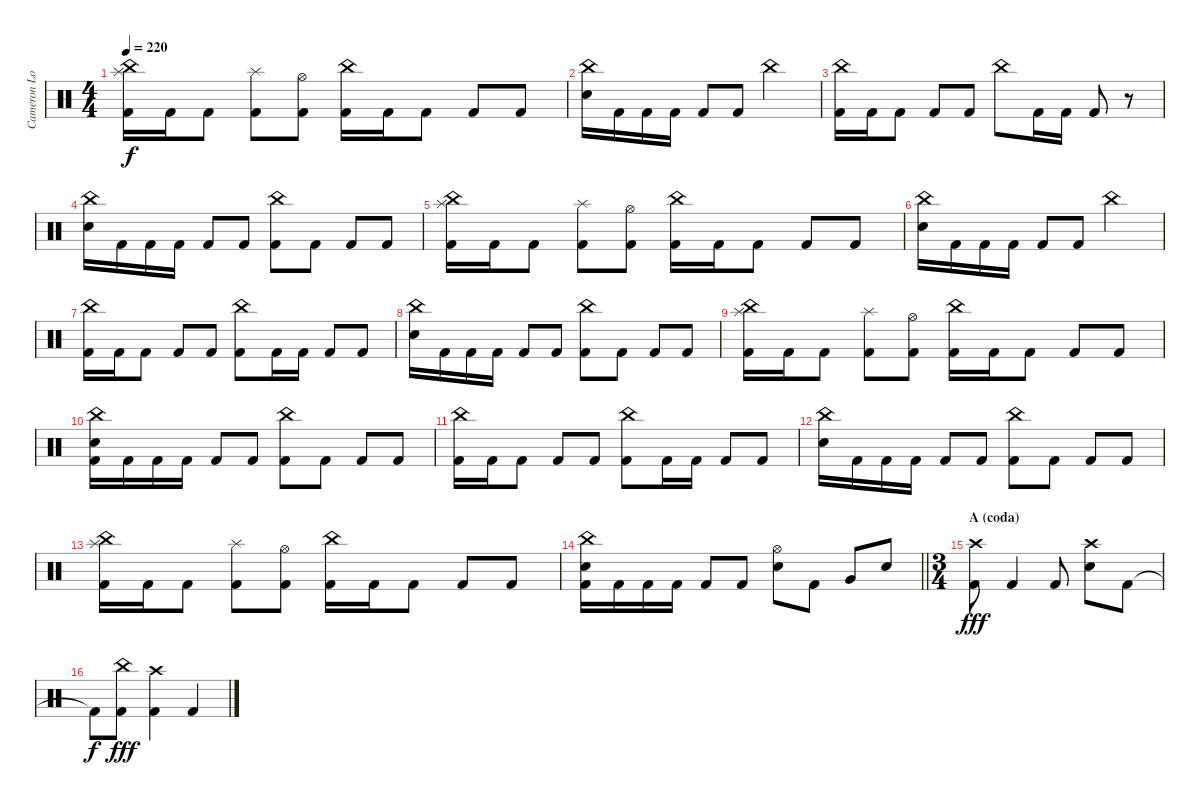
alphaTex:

\track ("Cameron Losch - Drums" "Cameron Lo") {instrument percussion}
\staff {score}
\articulation defaults
\ts (4 4)
\tempo 220
\clef neutral
\ks c
("China (hit)" "Splash (hit)" "Kick (hit) 2").16{dy f} "Kick (hit) 2".16 "Kick (hit) 2".8 ("Splash (hit)" "Kick (hit) 2").8 ("Hi-Hat (open)" "Kick (hit) 2").8 ("China (hit)" "Kick (hit) 2").16 "Kick (hit) 2".16 "Kick (hit) 2".8 "Kick (hit) 2".8 "Kick (hit) 2".8 |
("China (hit)" "Electric Snare (hit)").16 "Kick (hit) 2".16 "Kick (hit) 2".16 "Kick (hit) 2".16 "Kick (hit) 2".8 "Kick (hit) 2".8 "China (hit)".2 |
("China (hit)" "Kick (hit) 2").16 "Kick (hit) 2".16 "Kick (hit) 2".8 "Kick (hit) 2".8 "Kick (hit) 2".8 "China (hit)".8 "Kick (hit) 2".16 "Kick (hit) 2".16 "Kick (hit) 2".8 r.8 |
("China (hit)" "Electric Snare (hit)").16 "Kick (hit) 2".16 "Kick (hit) 2".16 "Kick (hit) 2".16 "Kick (hit) 2".8 "Kick (hit) 2".8 ("China (hit)" "Kick (hit) 2").8 "Kick (hit) 2".8 "Kick (hit) 2".8 "Kick (hit) 2".8 |
("China (hit)" "Splash (hit)" "Kick (hit) 2").16 "Kick (hit) 2".16 "Kick (hit) 2".8 ("Splash (hit)" "Kick (hit) 2").8 ("Hi-Hat (open)" "Kick (hit) 2").8 ("China (hit)" "Kick (hit) 2").16 "Kick (hit) 2".16 "Kick (hit) 2".8 "Kick (hit) 2".8 "Kick (hit) 2".8 |
("China (hit)" "Electric Snare (hit)").16 "Kick (hit) 2".16 "Kick (hit) 2".16 "Kick (hit) 2".16 "Kick (hit) 2".8 "Kick (hit) 2".8 "China (hit)".2 |
("China (hit)" "Kick (hit) 2").16 "Kick (hit) 2".16 "Kick (hit) 2".8 "Kick (hit) 2".8 "Kick (hit) 2".8 ("China (hit)" "Kick (hit) 2").8 "Kick (hit) 2".16 "Kick (hit) 2".16 "Kick (hit) 2".8 "Kick (hit) 2".8 |
("China (hit)" "Electric Snare (hit)").16 "Kick (hit) 2".16 "Kick (hit) 2".16 "Kick (hit) 2".16 "Kick (hit) 2".8 "Kick (hit) 2".8 ("China (hit)" "Kick (hit) 2").8 "Kick (hit) 2".8 "Kick (hit) 2".8 "Kick (hit) 2".8 |
("China (hit)" "Splash (hit)" "Kick (hit) 2").16 "Kick (hit) 2".16 "Kick (hit) 2".8 ("Splash (hit)" "Kick (hit) 2").8 ("Hi-Hat (open)" "Kick (hit) 2").8 ("China (hit)" "Kick (hit) 2").16 "Kick (hit) 2".16 "Kick (hit) 2".8 "Kick (hit) 2".8 "Kick (hit) 2".8 |
("China (hit)" "Electric Snare (hit)" "Kick (hit) 2").16 "Kick (hit) 2".16 "Kick (hit) 2".16 "Kick (hit) 2".16 "Kick (hit) 2".8 "Kick (hit) 2".8 ("China (hit)" "Kick (hit) 2").8 "Kick (hit) 2".8 "Kick (hit) 2".8 "Kick (hit) 2".8 |
("China (hit)" "Kick (hit) 2").16 "Kick (hit) 2".16 "Kick (hit) 2".8 "Kick (hit) 2".8 "Kick (hit) 2".8 ("China (hit)" "Kick (hit) 2").8 "Kick (hit) 2".16 "Kick (hit) 2".16 "Kick (hit) 2".8 "Kick (hit) 2".8 |
("China (hit)" "Electric Snare (hit)").16 "Kick (hit) 2".16 "Kick (hit) 2".16 "Kick (hit) 2".16 "Kick (hit) 2".8 "Kick (hit) 2".8 ("China (hit)" "Kick (hit) 2").8 "Kick (hit) 2".8 "Kick (hit) 2".8 "Kick (hit) 2".8 |
("China (hit)" "Splash (hit)" "Kick (hit) 2").16 "Kick (hit) 2".16 "Kick (hit) 2".8 ("Splash (hit)" "Kick (hit) 2").8 ("Hi-Hat (open)" "Kick (hit) 2").8 ("China (hit)" "Kick (hit) 2").16 "Kick (hit) 2".16 "Kick (hit) 2".8 "Kick (hit) 2".8 "Kick (hit) 2".8 |
\barLineRight lightlight
("China (hit)" "Electric Snare (hit)" "Kick (hit) 2").16 "Kick (hit) 2".16 "Kick (hit) 2".16 "Kick (hit) 2".16 "Kick (hit) 2".8 "Kick (hit) 2".8 ("Hi-Hat (open)" "Electric Snare (hit)").8 "Kick (hit) 2".8 "Very Low Tom (hit)".8 "Electric Snare (hit)".8 |
\ts (3 4)
\section ("" "A (coda)")
("Crash high (hit)" "Kick (hit) 2").8{dy fff} "Kick (hit) 2".4 "Kick (hit) 2".8 ("Crash high (hit)" "Electric Snare (hit)").8 "Kick (hit) 2".8 |
"Kick (hit) 2"{t}.8{dy f} ("China (hit)" "Kick (hit) 2").8{dy fff} ("Crash high (hit)" "Kick (hit) 2").4 "Kick (hit) 2".4
